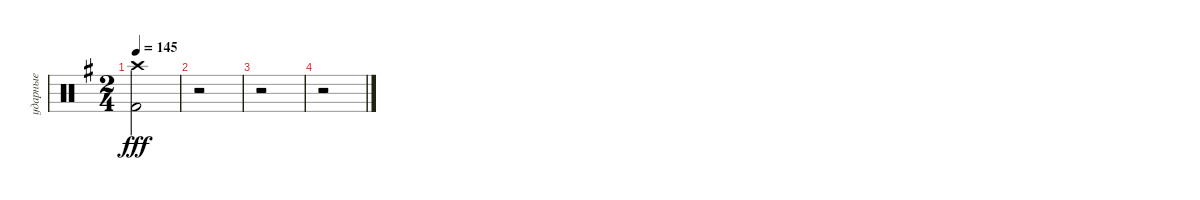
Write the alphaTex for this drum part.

\track ("ударные" "ударные") {instrument percussion}
\staff {score}
\articulation defaults
\ts (2 4)
\tempo 145
\clef neutral
\ks eminor
("Kick (hit) 2" "Crash high (hit)").2{dy fff} |
r.2 |
r.2 |
r.2
